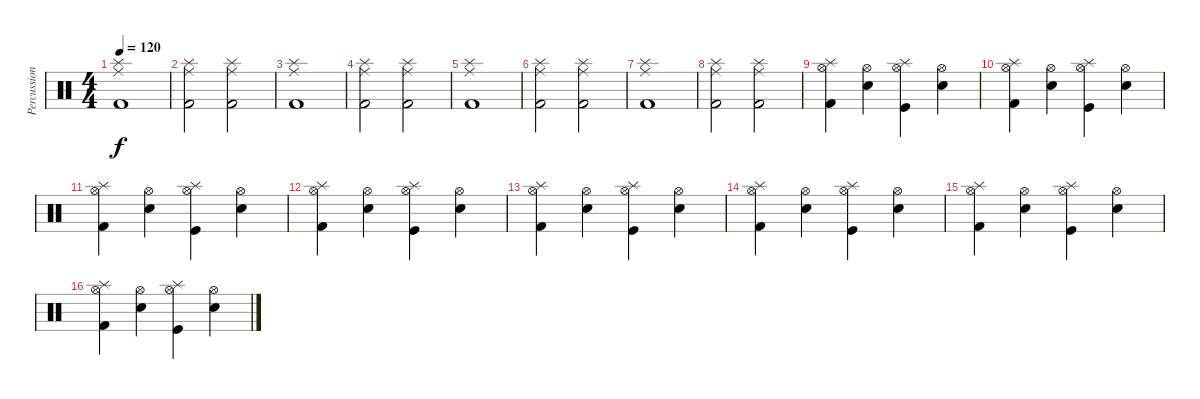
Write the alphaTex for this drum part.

\track ("Percussion" "Percussion") {instrument percussion}
\staff {score}
\articulation defaults
\ts (4 4)
\tempo 120
\clef neutral
\ks c
("Kick (hit) 2" "Ride (middle)" "Splash (hit)").1{dy f} |
("Kick (hit) 2" "Ride (middle)" "Splash (hit)").2 ("Kick (hit) 2" "Ride (middle)" "Splash (hit)").2 |
("Kick (hit) 2" "Ride (middle)" "Splash (hit)").1 |
("Kick (hit) 2" "Ride (middle)" "Splash (hit)").2 ("Kick (hit) 2" "Ride (middle)" "Splash (hit)").2 |
("Kick (hit) 2" "Ride (middle)" "Splash (hit)").1 |
("Kick (hit) 2" "Ride (middle)" "Splash (hit)").2 ("Kick (hit) 2" "Ride (middle)" "Splash (hit)").2 |
("Kick (hit) 2" "Ride (middle)" "Splash (hit)").1 |
("Kick (hit) 2" "Ride (middle)" "Splash (hit)").2 ("Kick (hit) 2" "Ride (middle)" "Splash (hit)").2 |
("Kick (hit) 2" "Hi-Hat (open)" "Splash (hit)").4 ("Snare (hit) 2" "Hi-Hat (open)").4 ("Kick (hit)" "Hi-Hat (open)" "Splash (hit)").4 ("Snare (hit) 2" "Hi-Hat (open)").4 |
("Kick (hit) 2" "Hi-Hat (open)" "Splash (hit)").4 ("Snare (hit) 2" "Hi-Hat (open)").4 ("Kick (hit)" "Hi-Hat (open)" "Splash (hit)").4 ("Snare (hit) 2" "Hi-Hat (open)").4 |
("Kick (hit) 2" "Hi-Hat (open)" "Splash (hit)").4 ("Snare (hit) 2" "Hi-Hat (open)").4 ("Kick (hit)" "Hi-Hat (open)" "Splash (hit)").4 ("Snare (hit) 2" "Hi-Hat (open)").4 |
("Kick (hit) 2" "Hi-Hat (open)" "Splash (hit)").4 ("Snare (hit) 2" "Hi-Hat (open)").4 ("Kick (hit)" "Hi-Hat (open)" "Splash (hit)").4 ("Snare (hit) 2" "Hi-Hat (open)").4 |
("Kick (hit) 2" "Hi-Hat (open)" "Splash (hit)").4 ("Snare (hit) 2" "Hi-Hat (open)").4 ("Kick (hit)" "Hi-Hat (open)" "Splash (hit)").4 ("Snare (hit) 2" "Hi-Hat (open)").4 |
("Kick (hit) 2" "Hi-Hat (open)" "Splash (hit)").4 ("Snare (hit) 2" "Hi-Hat (open)").4 ("Kick (hit)" "Hi-Hat (open)" "Splash (hit)").4 ("Snare (hit) 2" "Hi-Hat (open)").4 |
("Kick (hit) 2" "Hi-Hat (open)" "Splash (hit)").4 ("Snare (hit) 2" "Hi-Hat (open)").4 ("Kick (hit)" "Hi-Hat (open)" "Splash (hit)").4 ("Snare (hit) 2" "Hi-Hat (open)").4 |
("Kick (hit) 2" "Hi-Hat (open)" "Splash (hit)").4 ("Snare (hit) 2" "Hi-Hat (open)").4 ("Kick (hit)" "Hi-Hat (open)" "Splash (hit)").4 ("Snare (hit) 2" "Hi-Hat (open)").4
